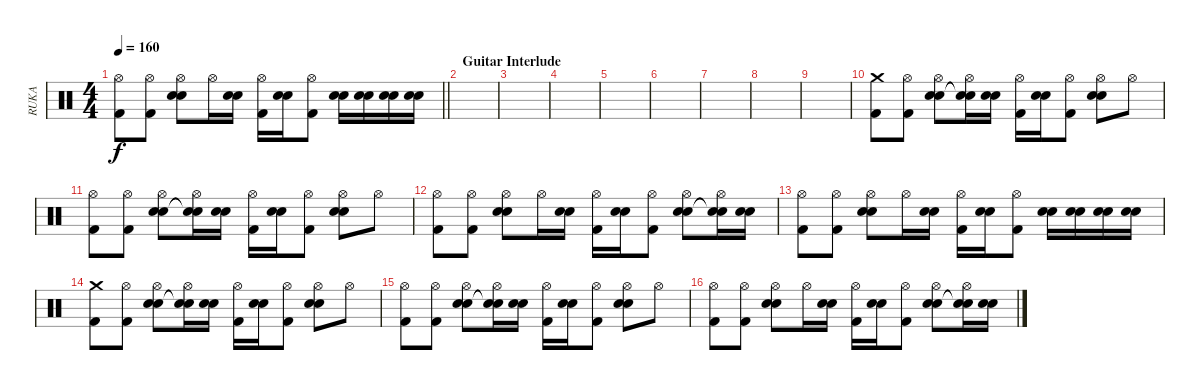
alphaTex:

\track ("RUKA" "RUKA") {instrument percussion}
\staff {score}
\articulation defaults
\ts (4 4)
\tempo 160
\clef neutral
\barLineRight lightlight
\ks c
("Hi-Hat (open)" "Kick (hit) 2").8{dy f} ("Hi-Hat (open)" "Kick (hit) 2").8 ("Hi-Hat (open)" "Snare (hit) 2" "Electric Snare (hit)").8 "Hi-Hat (open)".16 ("Snare (hit) 2" "Electric Snare (hit)").16 ("Hi-Hat (open)" "Kick (hit) 2").16 ("Snare (hit) 2" "Electric Snare (hit)").16 ("Hi-Hat (open)" "Kick (hit) 2").8 ("Snare (hit) 2" "Electric Snare (hit)").16 ("Snare (hit) 2" "Electric Snare (hit)").16 ("Snare (hit) 2" "Electric Snare (hit)").16 ("Snare (hit) 2" "Electric Snare (hit)").16 |
\section ("" "Guitar Interlude")
|
|
|
|
|
|
|
|
("Crash medium (hit)" "Kick (hit) 2").8 ("Hi-Hat (open)" "Kick (hit) 2").8 ("Hi-Hat (open)" "Snare (hit) 2" "Electric Snare (hit)").8 ("Hi-Hat (open)" "Snare (hit)"{t} "Snare (hit)"{t}).16 ("Snare (hit) 2" "Electric Snare (hit)").16 ("Hi-Hat (open)" "Kick (hit) 2").16 ("Snare (hit) 2" "Electric Snare (hit)").16 ("Hi-Hat (open)" "Kick (hit) 2").8 ("Hi-Hat (open)" "Snare (hit) 2" "Electric Snare (hit)").8 "Hi-Hat (open)".8 |
("Hi-Hat (open)" "Kick (hit) 2").8 ("Hi-Hat (open)" "Kick (hit) 2").8 ("Hi-Hat (open)" "Snare (hit) 2" "Electric Snare (hit)").8 ("Hi-Hat (open)" "Snare (hit)"{t} "Snare (hit)"{t}).16 ("Snare (hit) 2" "Electric Snare (hit)").16 ("Hi-Hat (open)" "Kick (hit) 2").16 ("Snare (hit) 2" "Electric Snare (hit)").16 ("Hi-Hat (open)" "Kick (hit) 2").8 ("Hi-Hat (open)" "Snare (hit) 2" "Electric Snare (hit)").8 "Hi-Hat (open)".8 |
("Hi-Hat (open)" "Kick (hit) 2").8 ("Hi-Hat (open)" "Kick (hit) 2").8 ("Hi-Hat (open)" "Snare (hit) 2" "Electric Snare (hit)").8 "Hi-Hat (open)".16 ("Snare (hit) 2" "Electric Snare (hit)").16 ("Hi-Hat (open)" "Kick (hit) 2").16 ("Snare (hit) 2" "Electric Snare (hit)").16 ("Hi-Hat (open)" "Kick (hit) 2").8 ("Hi-Hat (open)" "Snare (hit) 2" "Electric Snare (hit)").8 ("Hi-Hat (open)" "Snare (hit)"{t} "Snare (hit)"{t}).16 ("Snare (hit) 2" "Electric Snare (hit)").16 |
("Hi-Hat (open)" "Kick (hit) 2").8 ("Hi-Hat (open)" "Kick (hit) 2").8 ("Hi-Hat (open)" "Snare (hit) 2" "Electric Snare (hit)").8 "Hi-Hat (open)".16 ("Snare (hit) 2" "Electric Snare (hit)").16 ("Hi-Hat (open)" "Kick (hit) 2").16 ("Snare (hit) 2" "Electric Snare (hit)").16 ("Hi-Hat (open)" "Kick (hit) 2").8 ("Snare (hit) 2" "Electric Snare (hit)").16 ("Snare (hit) 2" "Electric Snare (hit)").16 ("Snare (hit) 2" "Electric Snare (hit)").16 ("Snare (hit) 2" "Electric Snare (hit)").16 |
("Crash medium (hit)" "Kick (hit) 2").8 ("Hi-Hat (open)" "Kick (hit) 2").8 ("Hi-Hat (open)" "Snare (hit) 2" "Electric Snare (hit)").8 ("Hi-Hat (open)" "Snare (hit)"{t} "Snare (hit)"{t}).16 ("Snare (hit) 2" "Electric Snare (hit)").16 ("Hi-Hat (open)" "Kick (hit) 2").16 ("Snare (hit) 2" "Electric Snare (hit)").16 ("Hi-Hat (open)" "Kick (hit) 2").8 ("Hi-Hat (open)" "Snare (hit) 2" "Electric Snare (hit)").8 "Hi-Hat (open)".8 |
("Hi-Hat (open)" "Kick (hit) 2").8 ("Hi-Hat (open)" "Kick (hit) 2").8 ("Hi-Hat (open)" "Snare (hit) 2" "Electric Snare (hit)").8 ("Hi-Hat (open)" "Snare (hit)"{t} "Snare (hit)"{t}).16 ("Snare (hit) 2" "Electric Snare (hit)").16 ("Hi-Hat (open)" "Kick (hit) 2").16 ("Snare (hit) 2" "Electric Snare (hit)").16 ("Hi-Hat (open)" "Kick (hit) 2").8 ("Hi-Hat (open)" "Snare (hit) 2" "Electric Snare (hit)").8 "Hi-Hat (open)".8 |
("Hi-Hat (open)" "Kick (hit) 2").8 ("Hi-Hat (open)" "Kick (hit) 2").8 ("Hi-Hat (open)" "Snare (hit) 2" "Electric Snare (hit)").8 "Hi-Hat (open)".16 ("Snare (hit) 2" "Electric Snare (hit)").16 ("Hi-Hat (open)" "Kick (hit) 2").16 ("Snare (hit) 2" "Electric Snare (hit)").16 ("Hi-Hat (open)" "Kick (hit) 2").8 ("Hi-Hat (open)" "Snare (hit) 2" "Electric Snare (hit)").8 ("Hi-Hat (open)" "Snare (hit)"{t} "Snare (hit)"{t}).16 ("Snare (hit) 2" "Electric Snare (hit)").16
